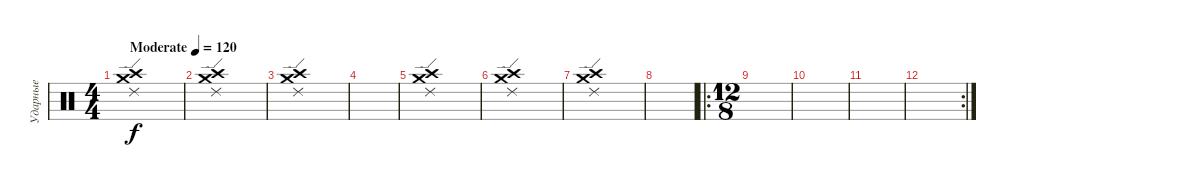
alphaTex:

\track ("Ударные" "Ударные") {instrument percussion}
\staff {score}
\articulation defaults
\ts (4 4)
\tempo (120 "Moderate")
\clef neutral
\ks c
("Crash high (hit)" "Ride (edge) 2" "Crash medium (hit)").1{dy f} |
("Crash high (hit)" "Ride (edge) 2" "Crash medium (hit)").1 |
("Crash high (hit)" "Ride (edge) 2" "Crash medium (hit)").1 |
|
("Crash high (hit)" "Ride (edge) 2" "Crash medium (hit)").1 |
("Crash high (hit)" "Ride (edge) 2" "Crash medium (hit)").1 |
("Crash high (hit)" "Ride (edge) 2" "Crash medium (hit)").1 |
|
\ro
\ts (12 8)
|
|
|
\rc 2
